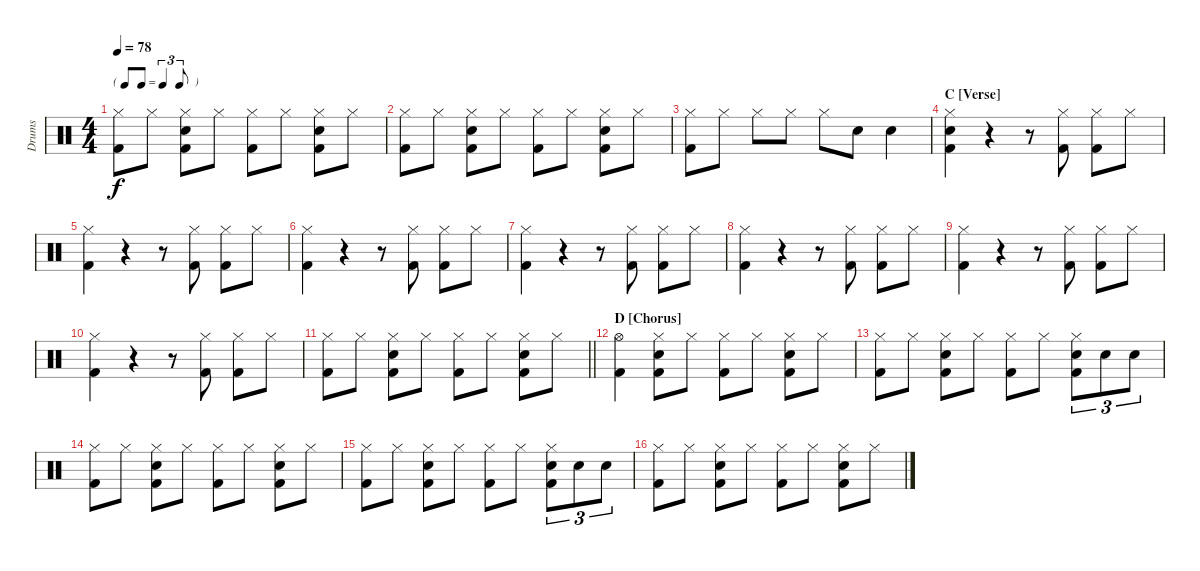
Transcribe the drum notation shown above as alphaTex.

\track ("Drums" "Drums") {instrument percussion}
\staff {score}
\articulation defaults
\ts (4 4)
\tf triplet8th
\tempo 78
\clef neutral
\ks c
("Hi-Hat (closed)" "Kick (hit) 2").8{dy f} "Hi-Hat (closed)".8 ("Hi-Hat (closed)" "Snare (hit) 2" "Kick (hit) 2").8 "Hi-Hat (closed)".8 ("Hi-Hat (closed)" "Kick (hit) 2").8 "Hi-Hat (closed)".8 ("Hi-Hat (closed)" "Snare (hit) 2" "Kick (hit) 2").8 "Hi-Hat (closed)".8 |
("Hi-Hat (closed)" "Kick (hit) 2").8 "Hi-Hat (closed)".8 ("Hi-Hat (closed)" "Snare (hit) 2" "Kick (hit) 2").8 "Hi-Hat (closed)".8 ("Hi-Hat (closed)" "Kick (hit) 2").8 "Hi-Hat (closed)".8 ("Hi-Hat (closed)" "Snare (hit) 2" "Kick (hit) 2").8 "Hi-Hat (closed)".8 |
("Hi-Hat (closed)" "Kick (hit) 2").8 "Hi-Hat (closed)".8 "Hi-Hat (closed)".8 "Hi-Hat (closed)".8 "Hi-Hat (closed)".8 "Snare (hit) 2".8 "Snare (hit) 2".4 |
\section ("" "C [Verse]")
("Hi-Hat (closed)" "Snare (hit) 2" "Kick (hit) 2").4 r.4 r.8 ("Hi-Hat (closed)" "Kick (hit) 2").8 ("Hi-Hat (closed)" "Kick (hit) 2").8 "Hi-Hat (closed)".8 |
("Hi-Hat (closed)" "Kick (hit) 2").4 r.4 r.8 ("Hi-Hat (closed)" "Kick (hit) 2").8 ("Hi-Hat (closed)" "Kick (hit) 2").8 "Hi-Hat (closed)".8 |
("Hi-Hat (closed)" "Kick (hit) 2").4 r.4 r.8 ("Hi-Hat (closed)" "Kick (hit) 2").8 ("Hi-Hat (closed)" "Kick (hit) 2").8 "Hi-Hat (closed)".8 |
("Hi-Hat (closed)" "Kick (hit) 2").4 r.4 r.8 ("Hi-Hat (closed)" "Kick (hit) 2").8 ("Hi-Hat (closed)" "Kick (hit) 2").8 "Hi-Hat (closed)".8 |
("Hi-Hat (closed)" "Kick (hit) 2").4 r.4 r.8 ("Hi-Hat (closed)" "Kick (hit) 2").8 ("Hi-Hat (closed)" "Kick (hit) 2").8 "Hi-Hat (closed)".8 |
("Hi-Hat (closed)" "Kick (hit) 2").4 r.4 r.8 ("Hi-Hat (closed)" "Kick (hit) 2").8 ("Hi-Hat (closed)" "Kick (hit) 2").8 "Hi-Hat (closed)".8 |
("Hi-Hat (closed)" "Kick (hit) 2").4 r.4 r.8 ("Hi-Hat (closed)" "Kick (hit) 2").8 ("Hi-Hat (closed)" "Kick (hit) 2").8 "Hi-Hat (closed)".8 |
\barLineRight lightlight
("Hi-Hat (closed)" "Kick (hit) 2").8 "Hi-Hat (closed)".8 ("Hi-Hat (closed)" "Snare (hit) 2" "Kick (hit) 2").8 "Hi-Hat (closed)".8 ("Hi-Hat (closed)" "Kick (hit) 2").8 "Hi-Hat (closed)".8 ("Hi-Hat (closed)" "Snare (hit) 2" "Kick (hit) 2").8 "Hi-Hat (closed)".8 |
\section ("" "D [Chorus]")
("Hi-Hat (open)" "Kick (hit) 2").4 ("Hi-Hat (closed)" "Snare (hit) 2" "Kick (hit) 2").8 "Hi-Hat (closed)".8 ("Hi-Hat (closed)" "Kick (hit) 2").8 "Hi-Hat (closed)".8 ("Hi-Hat (closed)" "Snare (hit) 2" "Kick (hit) 2").8 "Hi-Hat (closed)".8 |
("Hi-Hat (closed)" "Kick (hit) 2").8 "Hi-Hat (closed)".8 ("Hi-Hat (closed)" "Snare (hit) 2" "Kick (hit) 2").8 "Hi-Hat (closed)".8 ("Hi-Hat (closed)" "Kick (hit) 2").8 "Hi-Hat (closed)".8 ("Hi-Hat (closed)" "Snare (hit) 2" "Kick (hit) 2").8{tu (3 2)} "Snare (hit) 2".8{tu (3 2)} "Snare (hit) 2".8{tu (3 2)} |
("Hi-Hat (closed)" "Kick (hit) 2").8 "Hi-Hat (closed)".8 ("Hi-Hat (closed)" "Snare (hit) 2" "Kick (hit) 2").8 "Hi-Hat (closed)".8 ("Hi-Hat (closed)" "Kick (hit) 2").8 "Hi-Hat (closed)".8 ("Hi-Hat (closed)" "Snare (hit) 2" "Kick (hit) 2").8 "Hi-Hat (closed)".8 |
("Hi-Hat (closed)" "Kick (hit) 2").8 "Hi-Hat (closed)".8 ("Hi-Hat (closed)" "Snare (hit) 2" "Kick (hit) 2").8 "Hi-Hat (closed)".8 ("Hi-Hat (closed)" "Kick (hit) 2").8 "Hi-Hat (closed)".8 ("Hi-Hat (closed)" "Snare (hit) 2" "Kick (hit) 2").8{tu (3 2)} "Snare (hit) 2".8{tu (3 2)} "Snare (hit) 2".8{tu (3 2)} |
("Hi-Hat (closed)" "Kick (hit) 2").8 "Hi-Hat (closed)".8 ("Hi-Hat (closed)" "Snare (hit) 2" "Kick (hit) 2").8 "Hi-Hat (closed)".8 ("Hi-Hat (closed)" "Kick (hit) 2").8 "Hi-Hat (closed)".8 ("Hi-Hat (closed)" "Snare (hit) 2" "Kick (hit) 2").8 "Hi-Hat (closed)".8
